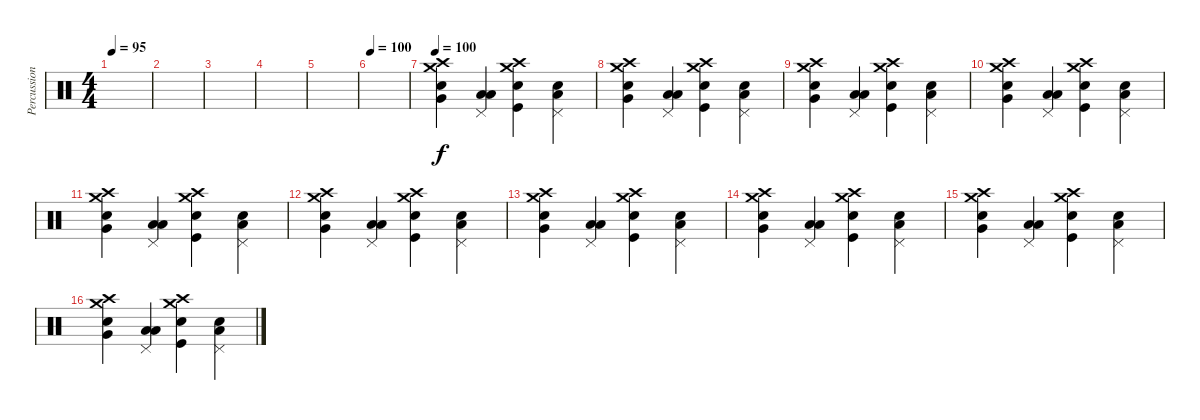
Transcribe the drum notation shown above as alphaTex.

\track ("Percussion" "Percussion") {instrument percussion}
\staff {score}
\articulation defaults
\ts (4 4)
\tempo 95
\clef neutral
\ks c
|
|
|
|
|
\tempo 100
|
\tempo 100
("Crash medium (hit)" "Crash high (hit)" "Electric Snare (hit)" "Very Low Tom (hit)").4{dy f} ("Pedal Hi-Hat (hit)" "Low Tom (hit)" "Low Floor Tom (hit)").4 ("Crash medium (hit)" "Crash high (hit)" "Electric Snare (hit)" "Kick (hit)").4 ("Pedal Hi-Hat (hit)" "Low Tom (hit)" "Electric Snare (hit)").4 |
("Crash medium (hit)" "Crash high (hit)" "Electric Snare (hit)" "Very Low Tom (hit)").4 ("Pedal Hi-Hat (hit)" "Low Tom (hit)" "Low Floor Tom (hit)").4 ("Crash medium (hit)" "Crash high (hit)" "Electric Snare (hit)" "Kick (hit)").4 ("Pedal Hi-Hat (hit)" "Low Tom (hit)" "Electric Snare (hit)").4 |
("Crash medium (hit)" "Crash high (hit)" "Electric Snare (hit)" "Very Low Tom (hit)").4 ("Pedal Hi-Hat (hit)" "Low Tom (hit)" "Low Floor Tom (hit)").4 ("Crash medium (hit)" "Crash high (hit)" "Electric Snare (hit)" "Kick (hit)").4 ("Pedal Hi-Hat (hit)" "Low Tom (hit)" "Electric Snare (hit)").4 |
("Crash medium (hit)" "Crash high (hit)" "Electric Snare (hit)" "Very Low Tom (hit)").4 ("Pedal Hi-Hat (hit)" "Low Tom (hit)" "Low Floor Tom (hit)").4 ("Crash medium (hit)" "Crash high (hit)" "Electric Snare (hit)" "Kick (hit)").4 ("Pedal Hi-Hat (hit)" "Low Tom (hit)" "Electric Snare (hit)").4 |
("Crash medium (hit)" "Crash high (hit)" "Electric Snare (hit)" "Very Low Tom (hit)").4 ("Pedal Hi-Hat (hit)" "Low Tom (hit)" "Low Floor Tom (hit)").4 ("Crash medium (hit)" "Crash high (hit)" "Electric Snare (hit)" "Kick (hit)").4 ("Pedal Hi-Hat (hit)" "Low Tom (hit)" "Electric Snare (hit)").4 |
("Crash medium (hit)" "Crash high (hit)" "Electric Snare (hit)" "Very Low Tom (hit)").4 ("Pedal Hi-Hat (hit)" "Low Tom (hit)" "Low Floor Tom (hit)").4 ("Crash medium (hit)" "Crash high (hit)" "Electric Snare (hit)" "Kick (hit)").4 ("Pedal Hi-Hat (hit)" "Low Tom (hit)" "Electric Snare (hit)").4 |
("Crash medium (hit)" "Crash high (hit)" "Electric Snare (hit)" "Very Low Tom (hit)").4 ("Pedal Hi-Hat (hit)" "Low Tom (hit)" "Low Floor Tom (hit)").4 ("Crash medium (hit)" "Crash high (hit)" "Electric Snare (hit)" "Kick (hit)").4 ("Pedal Hi-Hat (hit)" "Low Tom (hit)" "Electric Snare (hit)").4 |
("Crash medium (hit)" "Crash high (hit)" "Electric Snare (hit)" "Very Low Tom (hit)").4 ("Pedal Hi-Hat (hit)" "Low Tom (hit)" "Low Floor Tom (hit)").4 ("Crash medium (hit)" "Crash high (hit)" "Electric Snare (hit)" "Kick (hit)").4 ("Pedal Hi-Hat (hit)" "Low Tom (hit)" "Electric Snare (hit)").4 |
("Crash medium (hit)" "Crash high (hit)" "Electric Snare (hit)" "Very Low Tom (hit)").4 ("Pedal Hi-Hat (hit)" "Low Tom (hit)" "Low Floor Tom (hit)").4 ("Crash medium (hit)" "Crash high (hit)" "Electric Snare (hit)" "Kick (hit)").4 ("Pedal Hi-Hat (hit)" "Low Tom (hit)" "Electric Snare (hit)").4 |
("Crash medium (hit)" "Crash high (hit)" "Electric Snare (hit)" "Very Low Tom (hit)").4 ("Pedal Hi-Hat (hit)" "Low Tom (hit)" "Low Floor Tom (hit)").4 ("Crash medium (hit)" "Crash high (hit)" "Electric Snare (hit)" "Kick (hit)").4 ("Pedal Hi-Hat (hit)" "Low Tom (hit)" "Electric Snare (hit)").4
